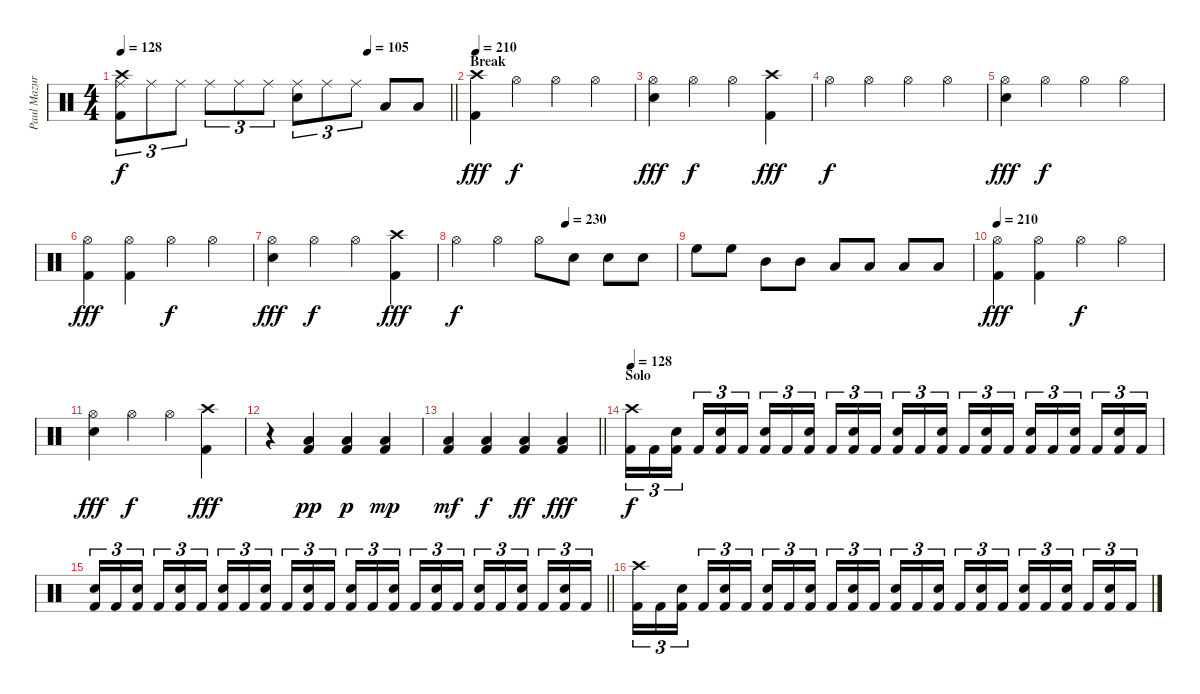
\track ("Paul Mazurkiewicz" "Paul Mazur") {instrument percussion}
\staff {score}
\articulation defaults
\ts (4 4)
\tempo 128
\tempo (105 0.75)
\clef neutral
\barLineRight lightlight
\ks c
("Crash high (hit)" "Kick (hit) 2" "Ride (middle)").8{tu (3 2) dy f} "Ride (middle)".8{tu (3 2)} "Ride (middle)".8{tu (3 2)} "Ride (middle)".8{tu (3 2)} "Ride (middle)".8{tu (3 2)} "Ride (middle)".8{tu (3 2)} ("Snare (hit) 2" "Ride (middle)").8{tu (3 2)} "Ride (middle)".8{tu (3 2)} "Ride (middle)".8{tu (3 2)} "Low Floor Tom (hit)".8 "Low Floor Tom (hit)".8 |
\section ("" "Break")
\tempo 210
("Crash high (hit)" "Kick (hit) 2").4{dy fff} "Hi-Hat (open)".4{dy f} "Hi-Hat (open)".4 "Hi-Hat (open)".4 |
("Hi-Hat (open)" "Electric Snare (hit)").4{dy fff} "Hi-Hat (open)".4{dy f} "Hi-Hat (open)".4 ("Crash high (hit)" "Kick (hit) 2").4{dy fff} |
"Hi-Hat (open)".4{dy f} "Hi-Hat (open)".4 "Hi-Hat (open)".4 "Hi-Hat (open)".4 |
("Hi-Hat (open)" "Electric Snare (hit)").4{dy fff} "Hi-Hat (open)".4{dy f} "Hi-Hat (open)".4 "Hi-Hat (open)".4 |
("Hi-Hat (open)" "Kick (hit) 2").4{dy fff} ("Hi-Hat (open)" "Kick (hit) 2").4 "Hi-Hat (open)".4{dy f} "Hi-Hat (open)".4 |
("Hi-Hat (open)" "Electric Snare (hit)").4{dy fff} "Hi-Hat (open)".4{dy f} "Hi-Hat (open)".4 ("Crash high (hit)" "Kick (hit) 2").4{dy fff} |
\tempo (230 0.5)
"Hi-Hat (open)".4{dy f} "Hi-Hat (open)".4 "Hi-Hat (open)".8 "Snare (hit) 2".8 "Snare (hit) 2".8 "Snare (hit) 2".8 |
"High Floor Tom (hit)".8 "High Floor Tom (hit)".8 "Mid Tom (hit)".8 "Mid Tom (hit)".8 "Low Tom (hit)".8 "Low Tom (hit)".8 "Low Floor Tom (hit)".8 "Low Floor Tom (hit)".8 |
\tempo 210
("Hi-Hat (open)" "Kick (hit) 2").4{dy fff} ("Hi-Hat (open)" "Kick (hit) 2").4 "Hi-Hat (open)".4{dy f} "Hi-Hat (open)".4 |
("Hi-Hat (open)" "Electric Snare (hit)").4{dy fff} "Hi-Hat (open)".4{dy f} "Hi-Hat (open)".4 ("Crash high (hit)" "Kick (hit) 2").4{dy fff} |
r.4 ("Low Floor Tom (hit)" "Kick (hit) 2").4{dy pp} ("Low Floor Tom (hit)" "Kick (hit) 2").4{dy p} ("Low Floor Tom (hit)" "Kick (hit) 2").4{dy mp} |
\barLineRight lightlight
("Low Floor Tom (hit)" "Kick (hit) 2").4{dy mf} ("Low Floor Tom (hit)" "Kick (hit) 2").4{dy f} ("Low Floor Tom (hit)" "Kick (hit) 2").4{dy ff} ("Low Floor Tom (hit)" "Kick (hit) 2").4{dy fff} |
\section ("" "Solo")
\tempo 128
("Crash high (hit)" "Kick (hit) 2").16{tu (3 2) dy f} "Kick (hit) 2".16{tu (3 2)} ("Snare (hit) 2" "Kick (hit) 2").16{tu (3 2)} "Kick (hit) 2".16{tu (3 2)} ("Snare (hit) 2" "Kick (hit) 2").16{tu (3 2)} "Kick (hit) 2".16{tu (3 2)} ("Snare (hit) 2" "Kick (hit) 2").16{tu (3 2)} "Kick (hit) 2".16{tu (3 2)} ("Snare (hit) 2" "Kick (hit) 2").16{tu (3 2)} "Kick (hit) 2".16{tu (3 2)} ("Snare (hit) 2" "Kick (hit) 2").16{tu (3 2)} "Kick (hit) 2".16{tu (3 2)} ("Snare (hit) 2" "Kick (hit) 2").16{tu (3 2)} "Kick (hit) 2".16{tu (3 2)} ("Snare (hit) 2" "Kick (hit) 2").16{tu (3 2)} "Kick (hit) 2".16{tu (3 2)} ("Snare (hit) 2" "Kick (hit) 2").16{tu (3 2)} "Kick (hit) 2".16{tu (3 2)} ("Snare (hit) 2" "Kick (hit) 2").16{tu (3 2)} "Kick (hit) 2".16{tu (3 2)} ("Snare (hit) 2" "Kick (hit) 2").16{tu (3 2)} "Kick (hit) 2".16{tu (3 2)} ("Snare (hit) 2" "Kick (hit) 2").16{tu (3 2)} "Kick (hit) 2".16{tu (3 2)} |
\barLineRight lightlight
("Snare (hit) 2" "Kick (hit) 2").16{tu (3 2)} "Kick (hit) 2".16{tu (3 2)} ("Snare (hit) 2" "Kick (hit) 2").16{tu (3 2)} "Kick (hit) 2".16{tu (3 2)} ("Snare (hit) 2" "Kick (hit) 2").16{tu (3 2)} "Kick (hit) 2".16{tu (3 2)} ("Snare (hit) 2" "Kick (hit) 2").16{tu (3 2)} "Kick (hit) 2".16{tu (3 2)} ("Snare (hit) 2" "Kick (hit) 2").16{tu (3 2)} "Kick (hit) 2".16{tu (3 2)} ("Snare (hit) 2" "Kick (hit) 2").16{tu (3 2)} "Kick (hit) 2".16{tu (3 2)} ("Snare (hit) 2" "Kick (hit) 2").16{tu (3 2)} "Kick (hit) 2".16{tu (3 2)} ("Snare (hit) 2" "Kick (hit) 2").16{tu (3 2)} "Kick (hit) 2".16{tu (3 2)} ("Snare (hit) 2" "Kick (hit) 2").16{tu (3 2)} "Kick (hit) 2".16{tu (3 2)} ("Snare (hit) 2" "Kick (hit) 2").16{tu (3 2)} "Kick (hit) 2".16{tu (3 2)} ("Snare (hit) 2" "Kick (hit) 2").16{tu (3 2)} "Kick (hit) 2".16{tu (3 2)} ("Snare (hit) 2" "Kick (hit) 2").16{tu (3 2)} "Kick (hit) 2".16{tu (3 2)} |
("Crash high (hit)" "Kick (hit) 2").16{tu (3 2)} "Kick (hit) 2".16{tu (3 2)} ("Snare (hit) 2" "Kick (hit) 2").16{tu (3 2)} "Kick (hit) 2".16{tu (3 2)} ("Snare (hit) 2" "Kick (hit) 2").16{tu (3 2)} "Kick (hit) 2".16{tu (3 2)} ("Snare (hit) 2" "Kick (hit) 2").16{tu (3 2)} "Kick (hit) 2".16{tu (3 2)} ("Snare (hit) 2" "Kick (hit) 2").16{tu (3 2)} "Kick (hit) 2".16{tu (3 2)} ("Snare (hit) 2" "Kick (hit) 2").16{tu (3 2)} "Kick (hit) 2".16{tu (3 2)} ("Snare (hit) 2" "Kick (hit) 2").16{tu (3 2)} "Kick (hit) 2".16{tu (3 2)} ("Snare (hit) 2" "Kick (hit) 2").16{tu (3 2)} "Kick (hit) 2".16{tu (3 2)} ("Snare (hit) 2" "Kick (hit) 2").16{tu (3 2)} "Kick (hit) 2".16{tu (3 2)} ("Snare (hit) 2" "Kick (hit) 2").16{tu (3 2)} "Kick (hit) 2".16{tu (3 2)} ("Snare (hit) 2" "Kick (hit) 2").16{tu (3 2)} "Kick (hit) 2".16{tu (3 2)} ("Snare (hit) 2" "Kick (hit) 2").16{tu (3 2)} "Kick (hit) 2".16{tu (3 2)}
